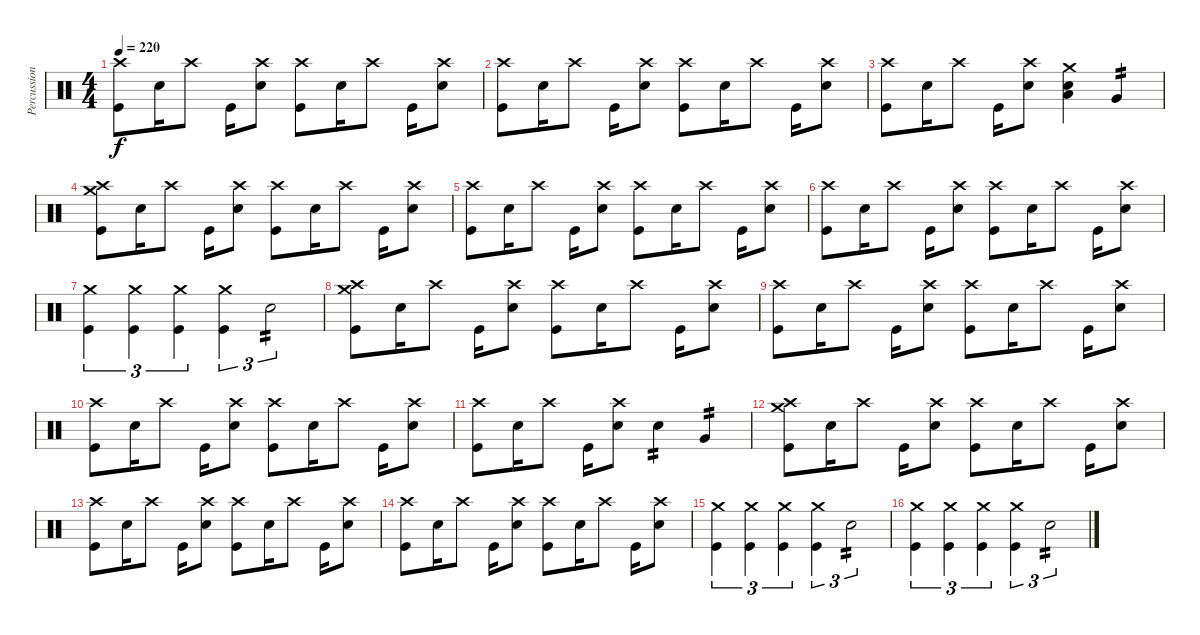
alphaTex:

\track ("Percussion" "Percussion") {instrument percussion}
\staff {score}
\articulation defaults
\ts (4 4)
\tempo 220
\clef neutral
\ks c
("Kick (hit)" "Crash high (hit)").8{dy f} "Snare (hit) 2".16 "Crash high (hit)".8 "Kick (hit)".16 ("Snare (hit) 2" "Crash high (hit)").8 ("Kick (hit)" "Crash high (hit)").8 "Snare (hit) 2".16 "Crash high (hit)".8 "Kick (hit)".16 ("Snare (hit) 2" "Crash high (hit)").8 |
("Kick (hit)" "Crash high (hit)").8 "Snare (hit) 2".16 "Crash high (hit)".8 "Kick (hit)".16 ("Snare (hit) 2" "Crash high (hit)").8 ("Kick (hit)" "Crash high (hit)").8 "Snare (hit) 2".16 "Crash high (hit)".8 "Kick (hit)".16 ("Snare (hit) 2" "Crash high (hit)").8 |
("Kick (hit)" "Crash high (hit)").8 "Snare (hit) 2".16 "Crash high (hit)".8 "Kick (hit)".16 ("Snare (hit) 2" "Crash high (hit)").8 ("Low Tom (hit)" "Snare (hit) 2" "Crash medium (hit)").4 "Very Low Tom (hit)".4{tp 2} |
("Crash medium (hit)" "Kick (hit)" "Crash high (hit)").8 "Snare (hit) 2".16 "Crash high (hit)".8 "Kick (hit)".16 ("Snare (hit) 2" "Crash high (hit)").8 ("Kick (hit)" "Crash high (hit)").8 "Snare (hit) 2".16 "Crash high (hit)".8 "Kick (hit)".16 ("Snare (hit) 2" "Crash high (hit)").8 |
("Kick (hit)" "Crash high (hit)").8 "Snare (hit) 2".16 "Crash high (hit)".8 "Kick (hit)".16 ("Snare (hit) 2" "Crash high (hit)").8 ("Kick (hit)" "Crash high (hit)").8 "Snare (hit) 2".16 "Crash high (hit)".8 "Kick (hit)".16 ("Snare (hit) 2" "Crash high (hit)").8 |
("Kick (hit)" "Crash high (hit)").8 "Snare (hit) 2".16 "Crash high (hit)".8 "Kick (hit)".16 ("Snare (hit) 2" "Crash high (hit)").8 ("Kick (hit)" "Crash high (hit)").8 "Snare (hit) 2".16 "Crash high (hit)".8 "Kick (hit)".16 ("Snare (hit) 2" "Crash high (hit)").8 |
("Crash medium (hit)" "Kick (hit)").4{tu (3 2)} ("Crash medium (hit)" "Kick (hit)").4{tu (3 2)} ("Crash medium (hit)" "Kick (hit)").4{tu (3 2)} ("Crash medium (hit)" "Kick (hit)").4{tu (3 2)} "Snare (hit) 2".2{tu (3 2) tp 2} |
("Crash medium (hit)" "Kick (hit)" "Crash high (hit)").8 "Snare (hit) 2".16 "Crash high (hit)".8 "Kick (hit)".16 ("Snare (hit) 2" "Crash high (hit)").8 ("Kick (hit)" "Crash high (hit)").8 "Snare (hit) 2".16 "Crash high (hit)".8 "Kick (hit)".16 ("Snare (hit) 2" "Crash high (hit)").8 |
("Kick (hit)" "Crash high (hit)").8 "Snare (hit) 2".16 "Crash high (hit)".8 "Kick (hit)".16 ("Snare (hit) 2" "Crash high (hit)").8 ("Kick (hit)" "Crash high (hit)").8 "Snare (hit) 2".16 "Crash high (hit)".8 "Kick (hit)".16 ("Snare (hit) 2" "Crash high (hit)").8 |
("Kick (hit)" "Crash high (hit)").8 "Snare (hit) 2".16 "Crash high (hit)".8 "Kick (hit)".16 ("Snare (hit) 2" "Crash high (hit)").8 ("Kick (hit)" "Crash high (hit)").8 "Snare (hit) 2".16 "Crash high (hit)".8 "Kick (hit)".16 ("Snare (hit) 2" "Crash high (hit)").8 |
("Kick (hit)" "Crash high (hit)").8 "Snare (hit) 2".16 "Crash high (hit)".8 "Kick (hit)".16 ("Snare (hit) 2" "Crash high (hit)").8 "Snare (hit) 2".4{tp 2} "Very Low Tom (hit)".4{tp 2} |
("Crash medium (hit)" "Kick (hit)" "Crash high (hit)").8 "Snare (hit) 2".16 "Crash high (hit)".8 "Kick (hit)".16 ("Snare (hit) 2" "Crash high (hit)").8 ("Kick (hit)" "Crash high (hit)").8 "Snare (hit) 2".16 "Crash high (hit)".8 "Kick (hit)".16 ("Snare (hit) 2" "Crash high (hit)").8 |
("Kick (hit)" "Crash high (hit)").8 "Snare (hit) 2".16 "Crash high (hit)".8 "Kick (hit)".16 ("Snare (hit) 2" "Crash high (hit)").8 ("Kick (hit)" "Crash high (hit)").8 "Snare (hit) 2".16 "Crash high (hit)".8 "Kick (hit)".16 ("Snare (hit) 2" "Crash high (hit)").8 |
("Kick (hit)" "Crash high (hit)").8 "Snare (hit) 2".16 "Crash high (hit)".8 "Kick (hit)".16 ("Snare (hit) 2" "Crash high (hit)").8 ("Kick (hit)" "Crash high (hit)").8 "Snare (hit) 2".16 "Crash high (hit)".8 "Kick (hit)".16 ("Snare (hit) 2" "Crash high (hit)").8 |
("Crash medium (hit)" "Kick (hit)").4{tu (3 2)} ("Crash medium (hit)" "Kick (hit)").4{tu (3 2)} ("Crash medium (hit)" "Kick (hit)").4{tu (3 2)} ("Crash medium (hit)" "Kick (hit)").4{tu (3 2)} "Snare (hit) 2".2{tu (3 2) tp 2} |
("Crash medium (hit)" "Kick (hit)").4{tu (3 2)} ("Crash medium (hit)" "Kick (hit)").4{tu (3 2)} ("Crash medium (hit)" "Kick (hit)").4{tu (3 2)} ("Crash medium (hit)" "Kick (hit)").4{tu (3 2)} "Snare (hit) 2".2{tu (3 2) tp 2}
